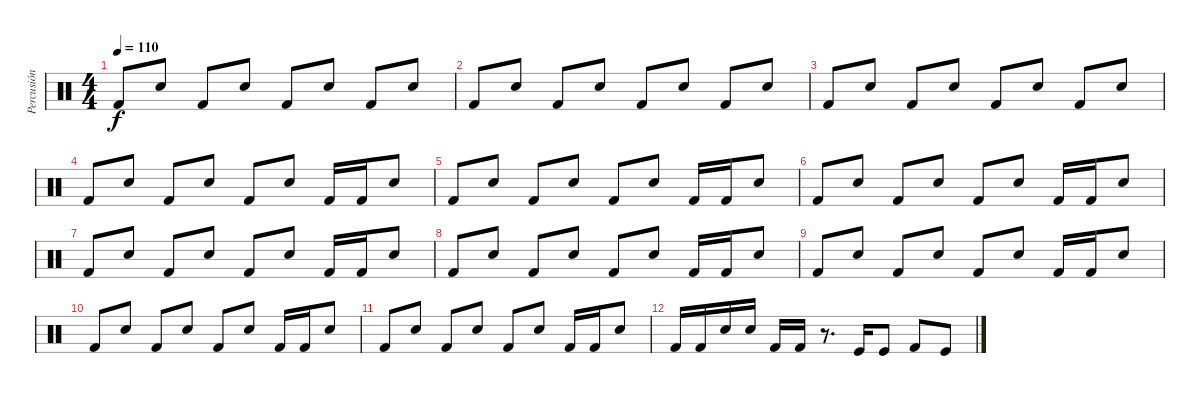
\track ("Percusión" "Percusión") {instrument percussion}
\staff {score}
\articulation defaults
\ts (4 4)
\tempo 110
\clef neutral
\ks c "Kick (hit) 2".8{dy f} "Electric Snare (hit)".8 "Kick (hit) 2".8 "Electric Snare (hit)".8 "Kick (hit) 2".8 "Electric Snare (hit)".8 "Kick (hit) 2".8 "Electric Snare (hit)".8
|
"Kick (hit) 2".8 "Electric Snare (hit)".8 "Kick (hit) 2".8 "Electric Snare (hit)".8 "Kick (hit) 2".8 "Electric Snare (hit)".8 "Kick (hit) 2".8 "Electric Snare (hit)".8 |
"Kick (hit) 2".8 "Electric Snare (hit)".8 "Kick (hit) 2".8 "Electric Snare (hit)".8 "Kick (hit) 2".8 "Electric Snare (hit)".8 "Kick (hit) 2".8 "Electric Snare (hit)".8 |
"Kick (hit) 2".8 "Electric Snare (hit)".8 "Kick (hit) 2".8 "Electric Snare (hit)".8 "Kick (hit) 2".8 "Electric Snare (hit)".8 "Kick (hit) 2".16 "Kick (hit) 2".16 "Electric Snare (hit)".8 |
"Kick (hit) 2".8 "Electric Snare (hit)".8 "Kick (hit) 2".8 "Electric Snare (hit)".8 "Kick (hit) 2".8 "Electric Snare (hit)".8 "Kick (hit) 2".16 "Kick (hit) 2".16 "Electric Snare (hit)".8 |
"Kick (hit) 2".8 "Electric Snare (hit)".8 "Kick (hit) 2".8 "Electric Snare (hit)".8 "Kick (hit) 2".8 "Electric Snare (hit)".8 "Kick (hit) 2".16 "Kick (hit) 2".16 "Electric Snare (hit)".8 |
"Kick (hit) 2".8 "Electric Snare (hit)".8 "Kick (hit) 2".8 "Electric Snare (hit)".8 "Kick (hit) 2".8 "Electric Snare (hit)".8 "Kick (hit) 2".16 "Kick (hit) 2".16 "Electric Snare (hit)".8 |
"Kick (hit) 2".8 "Electric Snare (hit)".8 "Kick (hit) 2".8 "Electric Snare (hit)".8 "Kick (hit) 2".8 "Electric Snare (hit)".8 "Kick (hit) 2".16 "Kick (hit) 2".16 "Electric Snare (hit)".8 |
"Kick (hit) 2".8 "Electric Snare (hit)".8 "Kick (hit) 2".8 "Electric Snare (hit)".8 "Kick (hit) 2".8 "Electric Snare (hit)".8 "Kick (hit) 2".16 "Kick (hit) 2".16 "Electric Snare (hit)".8 |
"Kick (hit) 2".8 "Electric Snare (hit)".8 "Kick (hit) 2".8 "Electric Snare (hit)".8 "Kick (hit) 2".8 "Electric Snare (hit)".8 "Kick (hit) 2".16 "Kick (hit) 2".16 "Electric Snare (hit)".8 |
"Kick (hit) 2".8 "Electric Snare (hit)".8 "Kick (hit) 2".8 "Electric Snare (hit)".8 "Kick (hit) 2".8 "Electric Snare (hit)".8 "Kick (hit) 2".16 "Kick (hit) 2".16 "Electric Snare (hit)".8 |
"Kick (hit) 2".16 "Kick (hit) 2".16 "Electric Snare (hit)".16 "Electric Snare (hit)".16 "Kick (hit) 2".16 "Kick (hit) 2".16 r.8{d} "Kick (hit)".16 "Kick (hit)".8 "Kick (hit) 2".8 "Kick (hit)".8
